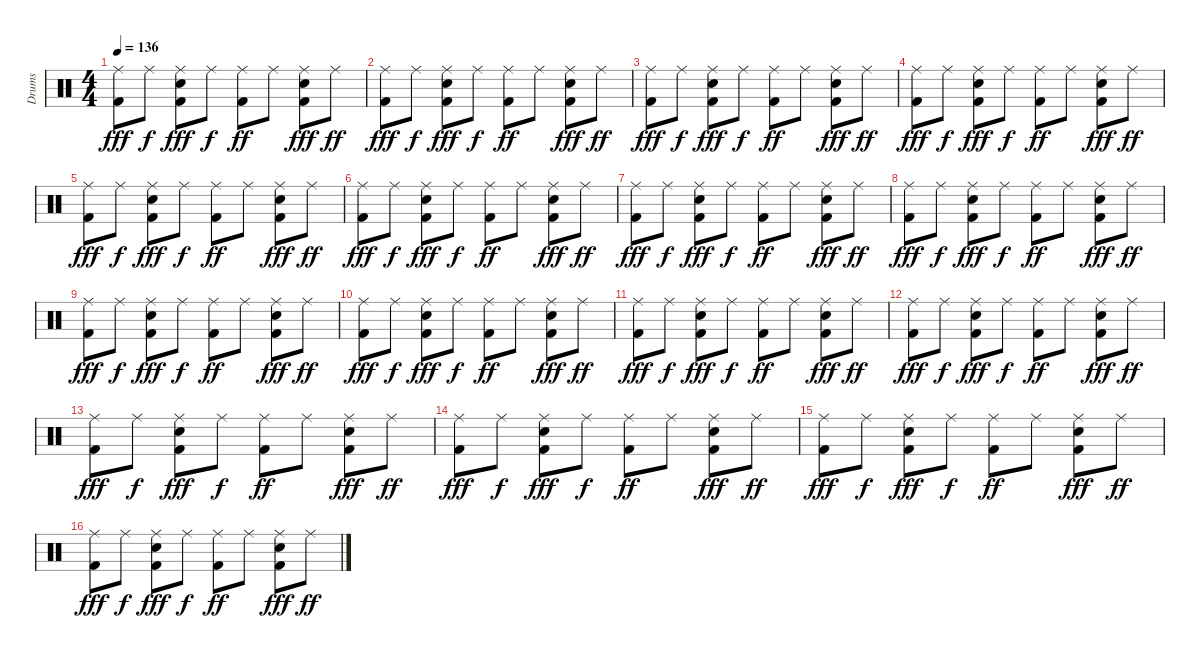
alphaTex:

\track ("Drums" "Drums") {instrument percussion}
\staff {score}
\articulation defaults
\ts (4 4)
\tempo 136
\clef neutral
\ks c
("Kick (hit) 2" "Ride (middle)").8{dy fff} "Ride (middle)".8{dy f} ("Kick (hit) 2" "Electric Snare (hit)" "Ride (middle)").8{dy fff} "Ride (middle)".8{dy f} ("Kick (hit) 2" "Ride (middle)").8{dy ff} "Ride (middle)".8 ("Kick (hit) 2" "Electric Snare (hit)" "Ride (middle)").8{dy fff} "Ride (middle)".8{dy ff} |
("Kick (hit) 2" "Ride (middle)").8{dy fff} "Ride (middle)".8{dy f} ("Kick (hit) 2" "Electric Snare (hit)" "Ride (middle)").8{dy fff} "Ride (middle)".8{dy f} ("Kick (hit) 2" "Ride (middle)").8{dy ff} "Ride (middle)".8 ("Kick (hit) 2" "Electric Snare (hit)" "Ride (middle)").8{dy fff} "Ride (middle)".8{dy ff} |
("Kick (hit) 2" "Ride (middle)").8{dy fff} "Ride (middle)".8{dy f} ("Kick (hit) 2" "Electric Snare (hit)" "Ride (middle)").8{dy fff} "Ride (middle)".8{dy f} ("Kick (hit) 2" "Ride (middle)").8{dy ff} "Ride (middle)".8 ("Kick (hit) 2" "Electric Snare (hit)" "Ride (middle)").8{dy fff} "Ride (middle)".8{dy ff} |
("Kick (hit) 2" "Ride (middle)").8{dy fff} "Ride (middle)".8{dy f} ("Kick (hit) 2" "Electric Snare (hit)" "Ride (middle)").8{dy fff} "Ride (middle)".8{dy f} ("Kick (hit) 2" "Ride (middle)").8{dy ff} "Ride (middle)".8 ("Kick (hit) 2" "Electric Snare (hit)" "Ride (middle)").8{dy fff} "Ride (middle)".8{dy ff} |
("Kick (hit) 2" "Ride (middle)").8{dy fff} "Ride (middle)".8{dy f} ("Kick (hit) 2" "Electric Snare (hit)" "Ride (middle)").8{dy fff} "Ride (middle)".8{dy f} ("Kick (hit) 2" "Ride (middle)").8{dy ff} "Ride (middle)".8 ("Kick (hit) 2" "Electric Snare (hit)" "Ride (middle)").8{dy fff} "Ride (middle)".8{dy ff} |
("Kick (hit) 2" "Ride (middle)").8{dy fff} "Ride (middle)".8{dy f} ("Kick (hit) 2" "Electric Snare (hit)" "Ride (middle)").8{dy fff} "Ride (middle)".8{dy f} ("Kick (hit) 2" "Ride (middle)").8{dy ff} "Ride (middle)".8 ("Kick (hit) 2" "Electric Snare (hit)" "Ride (middle)").8{dy fff} "Ride (middle)".8{dy ff} |
("Kick (hit) 2" "Ride (middle)").8{dy fff} "Ride (middle)".8{dy f} ("Kick (hit) 2" "Electric Snare (hit)" "Ride (middle)").8{dy fff} "Ride (middle)".8{dy f} ("Kick (hit) 2" "Ride (middle)").8{dy ff} "Ride (middle)".8 ("Kick (hit) 2" "Electric Snare (hit)" "Ride (middle)").8{dy fff} "Ride (middle)".8{dy ff} |
("Kick (hit) 2" "Ride (middle)").8{dy fff} "Ride (middle)".8{dy f} ("Kick (hit) 2" "Electric Snare (hit)" "Ride (middle)").8{dy fff} "Ride (middle)".8{dy f} ("Kick (hit) 2" "Ride (middle)").8{dy ff} "Ride (middle)".8 ("Kick (hit) 2" "Electric Snare (hit)" "Ride (middle)").8{dy fff} "Ride (middle)".8{dy ff} |
("Kick (hit) 2" "Ride (middle)").8{dy fff} "Ride (middle)".8{dy f} ("Kick (hit) 2" "Electric Snare (hit)" "Ride (middle)").8{dy fff} "Ride (middle)".8{dy f} ("Kick (hit) 2" "Ride (middle)").8{dy ff} "Ride (middle)".8 ("Kick (hit) 2" "Electric Snare (hit)" "Ride (middle)").8{dy fff} "Ride (middle)".8{dy ff} |
("Kick (hit) 2" "Ride (middle)").8{dy fff} "Ride (middle)".8{dy f} ("Kick (hit) 2" "Electric Snare (hit)" "Ride (middle)").8{dy fff} "Ride (middle)".8{dy f} ("Kick (hit) 2" "Ride (middle)").8{dy ff} "Ride (middle)".8 ("Kick (hit) 2" "Electric Snare (hit)" "Ride (middle)").8{dy fff} "Ride (middle)".8{dy ff} |
("Kick (hit) 2" "Ride (middle)").8{dy fff} "Ride (middle)".8{dy f} ("Kick (hit) 2" "Electric Snare (hit)" "Ride (middle)").8{dy fff} "Ride (middle)".8{dy f} ("Kick (hit) 2" "Ride (middle)").8{dy ff} "Ride (middle)".8 ("Kick (hit) 2" "Electric Snare (hit)" "Ride (middle)").8{dy fff} "Ride (middle)".8{dy ff} |
("Kick (hit) 2" "Ride (middle)").8{dy fff} "Ride (middle)".8{dy f} ("Kick (hit) 2" "Electric Snare (hit)" "Ride (middle)").8{dy fff} "Ride (middle)".8{dy f} ("Kick (hit) 2" "Ride (middle)").8{dy ff} "Ride (middle)".8 ("Kick (hit) 2" "Electric Snare (hit)" "Ride (middle)").8{dy fff} "Ride (middle)".8{dy ff} |
("Kick (hit) 2" "Ride (middle)").8{dy fff} "Ride (middle)".8{dy f} ("Kick (hit) 2" "Electric Snare (hit)" "Ride (middle)").8{dy fff} "Ride (middle)".8{dy f} ("Kick (hit) 2" "Ride (middle)").8{dy ff} "Ride (middle)".8 ("Kick (hit) 2" "Electric Snare (hit)" "Ride (middle)").8{dy fff} "Ride (middle)".8{dy ff} |
("Kick (hit) 2" "Ride (middle)").8{dy fff} "Ride (middle)".8{dy f} ("Kick (hit) 2" "Electric Snare (hit)" "Ride (middle)").8{dy fff} "Ride (middle)".8{dy f} ("Kick (hit) 2" "Ride (middle)").8{dy ff} "Ride (middle)".8 ("Kick (hit) 2" "Electric Snare (hit)" "Ride (middle)").8{dy fff} "Ride (middle)".8{dy ff} |
("Kick (hit) 2" "Ride (middle)").8{dy fff} "Ride (middle)".8{dy f} ("Kick (hit) 2" "Electric Snare (hit)" "Ride (middle)").8{dy fff} "Ride (middle)".8{dy f} ("Kick (hit) 2" "Ride (middle)").8{dy ff} "Ride (middle)".8 ("Kick (hit) 2" "Electric Snare (hit)" "Ride (middle)").8{dy fff} "Ride (middle)".8{dy ff} |
("Kick (hit) 2" "Ride (middle)").8{dy fff} "Ride (middle)".8{dy f} ("Kick (hit) 2" "Electric Snare (hit)" "Ride (middle)").8{dy fff} "Ride (middle)".8{dy f} ("Kick (hit) 2" "Ride (middle)").8{dy ff} "Ride (middle)".8 ("Kick (hit) 2" "Electric Snare (hit)" "Ride (middle)").8{dy fff} "Ride (middle)".8{dy ff}
